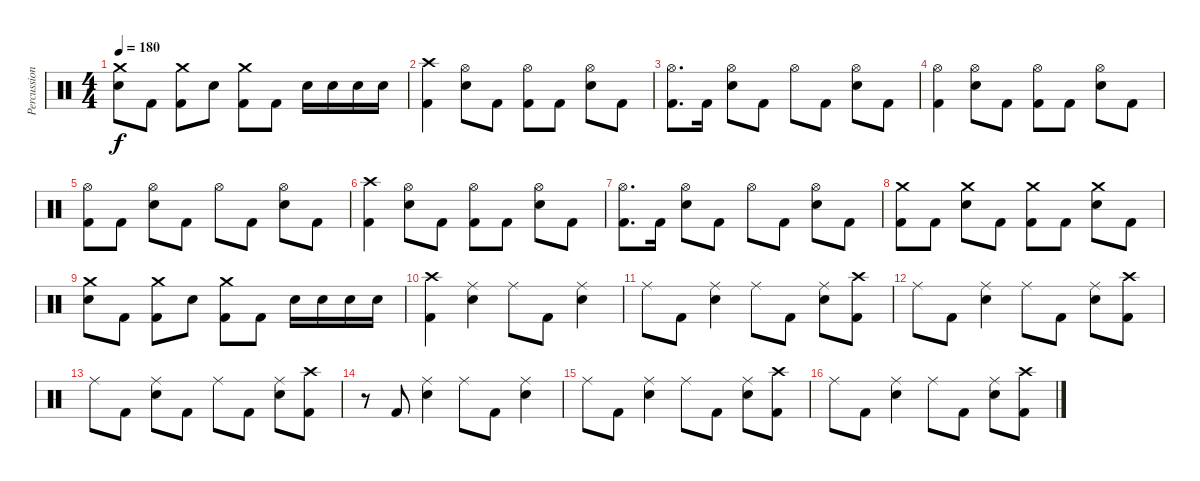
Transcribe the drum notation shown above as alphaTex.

\track ("Percussion" "Percussion") {instrument percussion}
\staff {score}
\articulation defaults
\ts (4 4)
\tempo 180
\clef neutral
\ks c
("Crash medium (hit)" "Electric Snare (hit)").8{dy f} "Kick (hit) 2".8 ("Crash medium (hit)" "Kick (hit) 2").8 "Electric Snare (hit)".8 ("Crash medium (hit)" "Kick (hit) 2").8 "Kick (hit) 2".8 "Electric Snare (hit)".16 "Electric Snare (hit)".16 "Electric Snare (hit)".16 "Electric Snare (hit)".16 |
("Crash high (hit)" "Kick (hit) 2").4 ("Hi-Hat (open)" "Electric Snare (hit)").8 "Kick (hit) 2".8 ("Hi-Hat (open)" "Kick (hit) 2").8 "Kick (hit) 2".8 ("Hi-Hat (open)" "Electric Snare (hit)").8 "Kick (hit) 2".8 |
("Hi-Hat (open)" "Kick (hit) 2").8{d} "Kick (hit) 2".16 ("Hi-Hat (open)" "Electric Snare (hit)").8 "Kick (hit) 2".8 "Hi-Hat (open)".8 "Kick (hit) 2".8 ("Hi-Hat (open)" "Electric Snare (hit)").8 "Kick (hit) 2".8 |
("Hi-Hat (open)" "Kick (hit) 2").4 ("Hi-Hat (open)" "Electric Snare (hit)").8 "Kick (hit) 2".8 ("Hi-Hat (open)" "Kick (hit) 2").8 "Kick (hit) 2".8 ("Hi-Hat (open)" "Electric Snare (hit)").8 "Kick (hit) 2".8 |
("Hi-Hat (open)" "Kick (hit) 2").8 "Kick (hit) 2".8 ("Hi-Hat (open)" "Electric Snare (hit)").8 "Kick (hit) 2".8 "Hi-Hat (open)".8 "Kick (hit) 2".8 ("Hi-Hat (open)" "Electric Snare (hit)").8 "Kick (hit) 2".8 |
("Crash high (hit)" "Kick (hit) 2").4 ("Hi-Hat (open)" "Electric Snare (hit)").8 "Kick (hit) 2".8 ("Hi-Hat (open)" "Kick (hit) 2").8 "Kick (hit) 2".8 ("Hi-Hat (open)" "Electric Snare (hit)").8 "Kick (hit) 2".8 |
("Hi-Hat (open)" "Kick (hit) 2").8{d} "Kick (hit) 2".16 ("Hi-Hat (open)" "Electric Snare (hit)").8 "Kick (hit) 2".8 "Hi-Hat (open)".8 "Kick (hit) 2".8 ("Hi-Hat (open)" "Electric Snare (hit)").8 "Kick (hit) 2".8 |
("Crash medium (hit)" "Kick (hit) 2").8 "Kick (hit) 2".8 ("Crash medium (hit)" "Electric Snare (hit)").8 "Kick (hit) 2".8 ("Crash medium (hit)" "Kick (hit) 2").8 "Kick (hit) 2".8 ("Crash medium (hit)" "Electric Snare (hit)").8 "Kick (hit) 2".8 |
("Crash medium (hit)" "Electric Snare (hit)").8 "Kick (hit) 2".8 ("Crash medium (hit)" "Kick (hit) 2").8 "Electric Snare (hit)".8 ("Crash medium (hit)" "Kick (hit) 2").8 "Kick (hit) 2".8 "Electric Snare (hit)".16 "Electric Snare (hit)".16 "Electric Snare (hit)".16 "Electric Snare (hit)".16 |
("Crash high (hit)" "Kick (hit) 2").4 ("Ride (middle)" "Electric Snare (hit)").4 "Ride (middle)".8 "Kick (hit) 2".8 ("Ride (middle)" "Electric Snare (hit)").4 |
"Ride (middle)".8 "Kick (hit) 2".8 ("Ride (middle)" "Electric Snare (hit)").4 "Ride (middle)".8 "Kick (hit) 2".8 ("Ride (middle)" "Electric Snare (hit)").8 ("Crash high (hit)" "Kick (hit) 2").8 |
"Ride (middle)".8 "Kick (hit) 2".8 ("Ride (middle)" "Electric Snare (hit)").4 "Ride (middle)".8 "Kick (hit) 2".8 ("Ride (middle)" "Electric Snare (hit)").8 ("Crash high (hit)" "Kick (hit) 2").8 |
"Ride (middle)".8 "Kick (hit) 2".8 ("Ride (middle)" "Electric Snare (hit)").8 "Kick (hit) 2".8 "Ride (middle)".8 "Kick (hit) 2".8 ("Ride (middle)" "Electric Snare (hit)").8 ("Crash high (hit)" "Kick (hit) 2").8 |
r.8 "Kick (hit) 2".8 ("Ride (middle)" "Electric Snare (hit)").4 "Ride (middle)".8 "Kick (hit) 2".8 ("Ride (middle)" "Electric Snare (hit)").4 |
"Ride (middle)".8 "Kick (hit) 2".8 ("Ride (middle)" "Electric Snare (hit)").4 "Ride (middle)".8 "Kick (hit) 2".8 ("Ride (middle)" "Electric Snare (hit)").8 ("Crash high (hit)" "Kick (hit) 2").8 |
"Ride (middle)".8 "Kick (hit) 2".8 ("Ride (middle)" "Electric Snare (hit)").4 "Ride (middle)".8 "Kick (hit) 2".8 ("Ride (middle)" "Electric Snare (hit)").8 ("Crash high (hit)" "Kick (hit) 2").8
